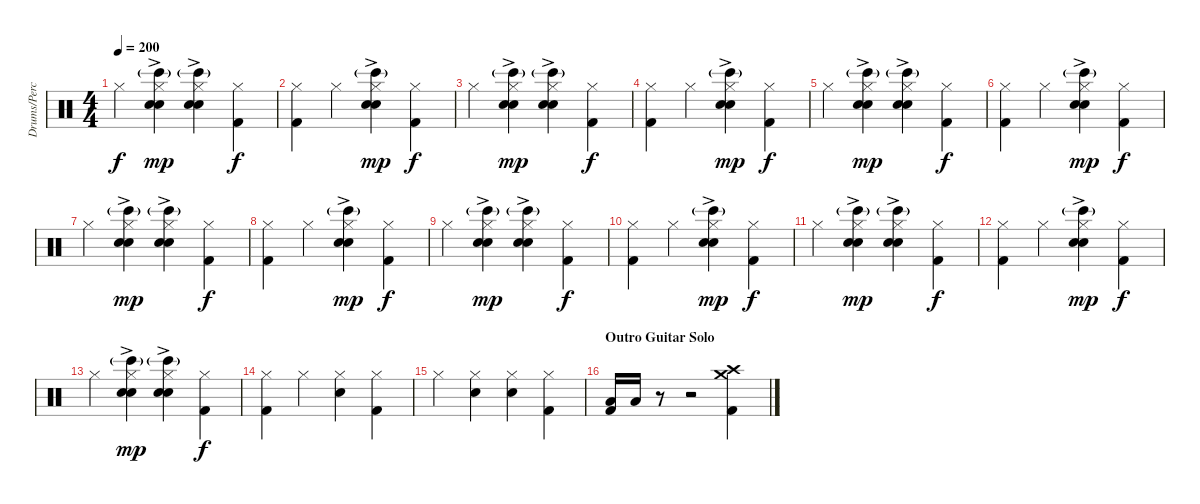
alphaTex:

\track ("Drums/Percussion" "Drums/Perc") {instrument percussion}
\staff {score}
\articulation defaults
\ts (4 4)
\tempo 200
\clef neutral
\ks c "Hi-Hat (closed)".4{dy f}
("Snare (hit) 2" "Hi-Hat (closed)" "Hand Clap (hit)"{ac} "Bongo High (hit)"{g}).4{dy mp} ("Snare (hit) 2" "Hi-Hat (closed)" "Hand Clap (hit)"{ac} "Bongo High (hit)"{g}).4 ("Kick (hit) 2" "Hi-Hat (closed)").4{dy f} |
("Kick (hit) 2" "Hi-Hat (closed)").4 "Hi-Hat (closed)".4 ("Snare (hit) 2" "Hi-Hat (closed)" "Hand Clap (hit)"{ac} "Bongo High (hit)"{g}).4{dy mp} ("Kick (hit) 2" "Hi-Hat (closed)").4{dy f} |
"Hi-Hat (closed)".4 ("Snare (hit) 2" "Hi-Hat (closed)" "Hand Clap (hit)"{ac} "Bongo High (hit)"{g}).4{dy mp} ("Snare (hit) 2" "Hi-Hat (closed)" "Hand Clap (hit)"{ac} "Bongo High (hit)"{g}).4 ("Kick (hit) 2" "Hi-Hat (closed)").4{dy f} |
("Kick (hit) 2" "Hi-Hat (closed)").4 "Hi-Hat (closed)".4 ("Snare (hit) 2" "Hi-Hat (closed)" "Hand Clap (hit)"{ac} "Bongo High (hit)"{g}).4{dy mp} ("Kick (hit) 2" "Hi-Hat (closed)").4{dy f} |
"Hi-Hat (closed)".4 ("Snare (hit) 2" "Hi-Hat (closed)" "Hand Clap (hit)"{ac} "Bongo High (hit)"{g}).4{dy mp} ("Snare (hit) 2" "Hi-Hat (closed)" "Hand Clap (hit)"{ac} "Bongo High (hit)"{g}).4 ("Kick (hit) 2" "Hi-Hat (closed)").4{dy f} |
("Kick (hit) 2" "Hi-Hat (closed)").4 "Hi-Hat (closed)".4 ("Snare (hit) 2" "Hi-Hat (closed)" "Hand Clap (hit)"{ac} "Bongo High (hit)"{g}).4{dy mp} ("Kick (hit) 2" "Hi-Hat (closed)").4{dy f} |
"Hi-Hat (closed)".4 ("Snare (hit) 2" "Hi-Hat (closed)" "Hand Clap (hit)"{ac} "Bongo High (hit)"{g}).4{dy mp} ("Snare (hit) 2" "Hi-Hat (closed)" "Hand Clap (hit)"{ac} "Bongo High (hit)"{g}).4 ("Kick (hit) 2" "Hi-Hat (closed)").4{dy f} |
("Kick (hit) 2" "Hi-Hat (closed)").4 "Hi-Hat (closed)".4 ("Snare (hit) 2" "Hi-Hat (closed)" "Hand Clap (hit)"{ac} "Bongo High (hit)"{g}).4{dy mp} ("Kick (hit) 2" "Hi-Hat (closed)").4{dy f} |
"Hi-Hat (closed)".4 ("Snare (hit) 2" "Hi-Hat (closed)" "Hand Clap (hit)"{ac} "Bongo High (hit)"{g}).4{dy mp} ("Snare (hit) 2" "Hi-Hat (closed)" "Hand Clap (hit)"{ac} "Bongo High (hit)"{g}).4 ("Kick (hit) 2" "Hi-Hat (closed)").4{dy f} |
("Kick (hit) 2" "Hi-Hat (closed)").4 "Hi-Hat (closed)".4 ("Snare (hit) 2" "Hi-Hat (closed)" "Hand Clap (hit)"{ac} "Bongo High (hit)"{g}).4{dy mp} ("Kick (hit) 2" "Hi-Hat (closed)").4{dy f} |
"Hi-Hat (closed)".4 ("Snare (hit) 2" "Hi-Hat (closed)" "Hand Clap (hit)"{ac} "Bongo High (hit)"{g}).4{dy mp} ("Snare (hit) 2" "Hi-Hat (closed)" "Hand Clap (hit)"{ac} "Bongo High (hit)"{g}).4 ("Kick (hit) 2" "Hi-Hat (closed)").4{dy f} |
("Kick (hit) 2" "Hi-Hat (closed)").4 "Hi-Hat (closed)".4 ("Snare (hit) 2" "Hi-Hat (closed)" "Hand Clap (hit)"{ac} "Bongo High (hit)"{g}).4{dy mp} ("Kick (hit) 2" "Hi-Hat (closed)").4{dy f} |
"Hi-Hat (closed)".4 ("Snare (hit) 2" "Hi-Hat (closed)" "Hand Clap (hit)"{ac} "Bongo High (hit)"{g}).4{dy mp} ("Snare (hit) 2" "Hi-Hat (closed)" "Hand Clap (hit)"{ac} "Bongo High (hit)"{g}).4 ("Kick (hit) 2" "Hi-Hat (closed)").4{dy f} |
("Kick (hit) 2" "Hi-Hat (closed)").4 "Hi-Hat (closed)".4 ("Snare (hit) 2" "Hi-Hat (closed)").4 ("Kick (hit) 2" "Hi-Hat (closed)").4 |
"Hi-Hat (closed)".4 ("Snare (hit) 2" "Hi-Hat (closed)").4 ("Snare (hit) 2" "Hi-Hat (closed)").4 ("Kick (hit) 2" "Hi-Hat (closed)").4 |
\section ("" "Outro Guitar Solo")
("Kick (hit) 2" "Low Floor Tom (hit)").16 "Low Floor Tom (hit)".16 r.8 r.2 ("Kick (hit) 2" "Crash high (hit)" "Crash medium (hit)").4
